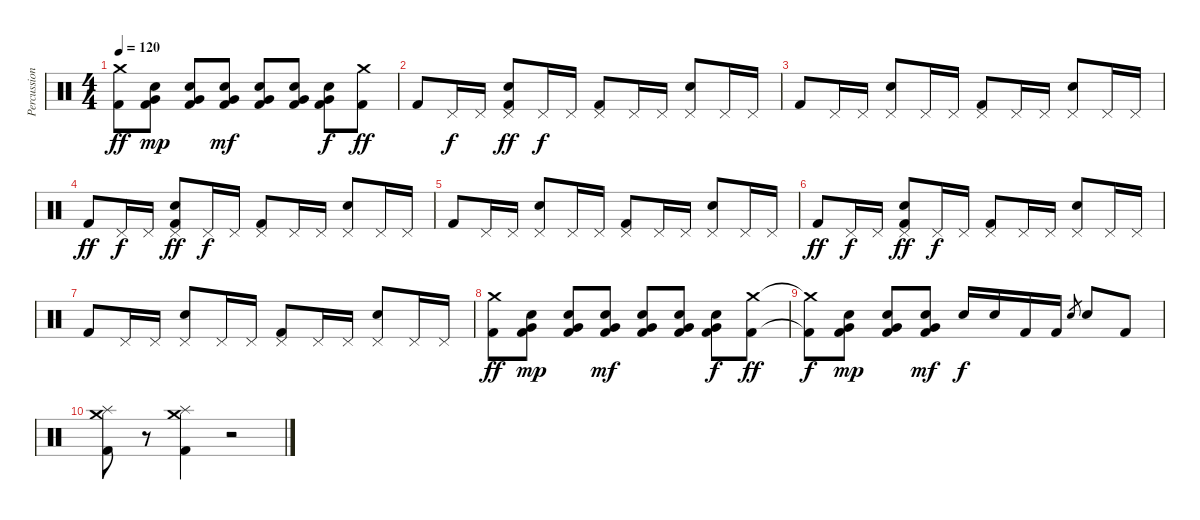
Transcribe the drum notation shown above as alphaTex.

\track ("Percussion" "Percussion") {instrument percussion}
\staff {score}
\articulation defaults
\ts (4 4)
\tempo 120
\clef neutral
\ks c
("Crash medium (hit)" "Kick (hit) 2").8{dy ff} ("Very Low Tom (hit)" "Snare (hit) 2" "Kick (hit) 2").8{dy mp} ("Very Low Tom (hit)" "Snare (hit) 2" "Kick (hit) 2").8 ("Very Low Tom (hit)" "Snare (hit) 2" "Kick (hit) 2").8{dy mf} ("Very Low Tom (hit)" "Snare (hit) 2" "Kick (hit) 2").8 ("Very Low Tom (hit)" "Snare (hit) 2" "Kick (hit) 2").8 ("Very Low Tom (hit)" "Snare (hit) 2" "Kick (hit) 2").8{dy f} ("Crash medium (hit)" "Kick (hit) 2").8{dy ff} |
"Kick (hit) 2".8 "Pedal Hi-Hat (hit)".16{dy f} "Pedal Hi-Hat (hit)".16 ("Pedal Hi-Hat (hit)" "Snare (hit) 2" "Kick (hit) 2").8{dy ff} "Pedal Hi-Hat (hit)".16{dy f} "Pedal Hi-Hat (hit)".16 ("Pedal Hi-Hat (hit)" "Kick (hit) 2").8 "Pedal Hi-Hat (hit)".16 "Pedal Hi-Hat (hit)".16 ("Pedal Hi-Hat (hit)" "Snare (hit) 2").8 "Pedal Hi-Hat (hit)".16 "Pedal Hi-Hat (hit)".16 |
"Kick (hit) 2".8 "Pedal Hi-Hat (hit)".16 "Pedal Hi-Hat (hit)".16 ("Pedal Hi-Hat (hit)" "Snare (hit) 2").8 "Pedal Hi-Hat (hit)".16 "Pedal Hi-Hat (hit)".16 ("Pedal Hi-Hat (hit)" "Kick (hit) 2").8 "Pedal Hi-Hat (hit)".16 "Pedal Hi-Hat (hit)".16 ("Pedal Hi-Hat (hit)" "Snare (hit) 2").8 "Pedal Hi-Hat (hit)".16 "Pedal Hi-Hat (hit)".16 |
"Kick (hit) 2".8{dy ff} "Pedal Hi-Hat (hit)".16{dy f} "Pedal Hi-Hat (hit)".16 ("Pedal Hi-Hat (hit)" "Snare (hit) 2" "Kick (hit) 2").8{dy ff} "Pedal Hi-Hat (hit)".16{dy f} "Pedal Hi-Hat (hit)".16 ("Pedal Hi-Hat (hit)" "Kick (hit) 2").8 "Pedal Hi-Hat (hit)".16 "Pedal Hi-Hat (hit)".16 ("Pedal Hi-Hat (hit)" "Snare (hit) 2").8 "Pedal Hi-Hat (hit)".16 "Pedal Hi-Hat (hit)".16 |
"Kick (hit) 2".8 "Pedal Hi-Hat (hit)".16 "Pedal Hi-Hat (hit)".16 ("Pedal Hi-Hat (hit)" "Snare (hit) 2").8 "Pedal Hi-Hat (hit)".16 "Pedal Hi-Hat (hit)".16 ("Pedal Hi-Hat (hit)" "Kick (hit) 2").8 "Pedal Hi-Hat (hit)".16 "Pedal Hi-Hat (hit)".16 ("Pedal Hi-Hat (hit)" "Snare (hit) 2").8 "Pedal Hi-Hat (hit)".16 "Pedal Hi-Hat (hit)".16 |
"Kick (hit) 2".8{dy ff} "Pedal Hi-Hat (hit)".16{dy f} "Pedal Hi-Hat (hit)".16 ("Pedal Hi-Hat (hit)" "Snare (hit) 2" "Kick (hit) 2").8{dy ff} "Pedal Hi-Hat (hit)".16{dy f} "Pedal Hi-Hat (hit)".16 ("Pedal Hi-Hat (hit)" "Kick (hit) 2").8 "Pedal Hi-Hat (hit)".16 "Pedal Hi-Hat (hit)".16 ("Pedal Hi-Hat (hit)" "Snare (hit) 2").8 "Pedal Hi-Hat (hit)".16 "Pedal Hi-Hat (hit)".16 |
"Kick (hit) 2".8 "Pedal Hi-Hat (hit)".16 "Pedal Hi-Hat (hit)".16 ("Pedal Hi-Hat (hit)" "Snare (hit) 2").8 "Pedal Hi-Hat (hit)".16 "Pedal Hi-Hat (hit)".16 ("Pedal Hi-Hat (hit)" "Kick (hit) 2").8 "Pedal Hi-Hat (hit)".16 "Pedal Hi-Hat (hit)".16 ("Pedal Hi-Hat (hit)" "Snare (hit) 2").8 "Pedal Hi-Hat (hit)".16 "Pedal Hi-Hat (hit)".16 |
("Crash medium (hit)" "Kick (hit) 2").8{dy ff} ("Very Low Tom (hit)" "Snare (hit) 2" "Kick (hit) 2").8{dy mp} ("Very Low Tom (hit)" "Snare (hit) 2" "Kick (hit) 2").8 ("Very Low Tom (hit)" "Snare (hit) 2" "Kick (hit) 2").8{dy mf} ("Very Low Tom (hit)" "Snare (hit) 2" "Kick (hit) 2").8 ("Very Low Tom (hit)" "Snare (hit) 2" "Kick (hit) 2").8 ("Very Low Tom (hit)" "Snare (hit) 2" "Kick (hit) 2").8{dy f} ("Crash medium (hit)" "Kick (hit) 2").8{dy ff} |
("Crash medium (hit)"{t} "Kick (hit) 2"{t}).8{dy f} ("Very Low Tom (hit)" "Snare (hit) 2" "Kick (hit) 2").8{dy mp} ("Very Low Tom (hit)" "Snare (hit) 2" "Kick (hit) 2").8 ("Very Low Tom (hit)" "Snare (hit) 2" "Kick (hit) 2").8{dy mf} "Snare (hit) 2".16{dy f} "Snare (hit) 2".16 "Kick (hit) 2".16 "Kick (hit) 2".16 "Snare (hit) 2".8{gr} "Snare (hit) 2".8 "Kick (hit) 2".8 |
("Crash medium (hit)" "Splash (hit)" "Kick (hit) 2").8 r.8 ("Crash medium (hit)" "Splash (hit)" "Kick (hit) 2").4 r.2
